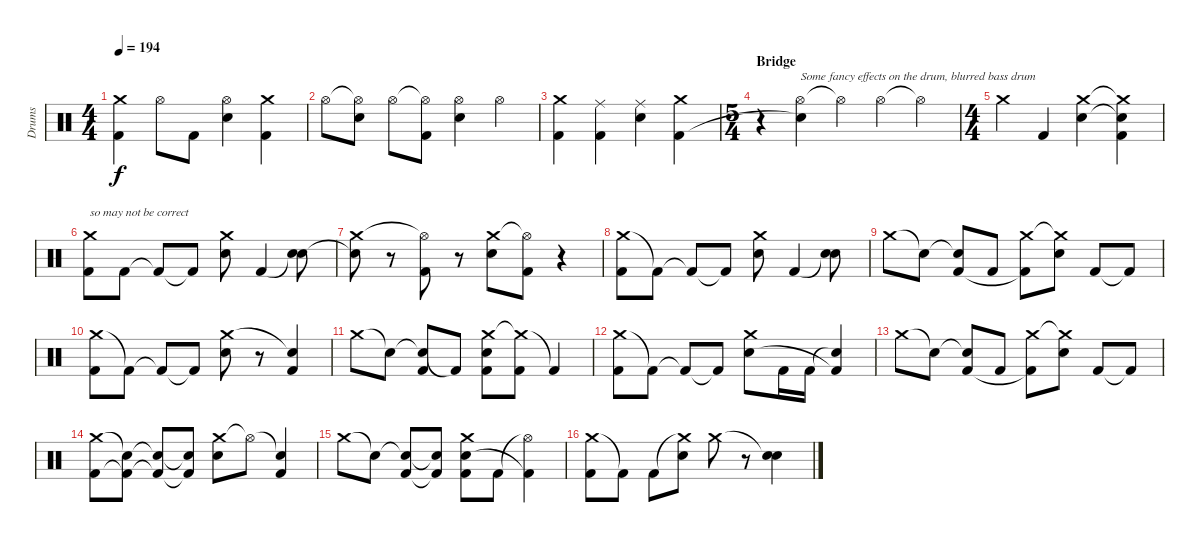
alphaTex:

\track ("Drums" "Drums") {instrument percussion}
\staff {score}
\articulation defaults
\ts (4 4)
\tempo 194
\clef neutral
\ks c
("Crash medium (hit)" "Kick (hit) 2").4{dy f} "Hi-Hat (open)".8 "Kick (hit) 2".8 ("Hi-Hat (open)" "Snare (hit) 2").4 ("Crash medium (hit)" "Kick (hit) 2").4 |
"Hi-Hat (open)".8 ("Hi-Hat (open)"{t} "Snare (hit) 2").8 "Hi-Hat (open)".8 ("Hi-Hat (open)"{t} "Kick (hit) 2").8 ("Hi-Hat (open)" "Snare (hit) 2").4 "Hi-Hat (open)".4 |
("Crash medium (hit)" "Kick (hit) 2").4 ("Ride (middle)" "Kick (hit) 2").4 ("Ride (middle)" "Snare (hit) 2").4 ("Crash medium (hit)" "Kick (hit) 2").4 |
\ts (5 4)
\section ("" "Bridge")
r.4 ("Hi-Hat (open)" "Snare (hit)"{t}).4{txt "Some fancy effects on the drum, blurred bass drum"} "Hi-Hat (open)"{t}.4 "Hi-Hat (open)".4 "Hi-Hat (open)"{t}.4 |
\ts (4 4)
"Crash medium (hit)".4 "Kick (hit) 2".4 ("Crash medium (hit)" "Electric Snare (hit)").4 ("Crash medium (hit)"{t} "Electric Snare (hit)"{t} "Kick (hit) 2").4 |
("Crash medium (hit)" "Kick (hit) 2").8{txt "so may not be correct"} "Kick (hit) 2".8 "Kick (hit) 2"{t}.8 "Kick (hit) 2"{t}.8 ("Crash medium (hit)" "Electric Snare (hit)").8 "Kick (hit) 2".4 ("Snare (hit)"{t} "Electric Snare (hit)").8 |
("Crash medium (hit)" "Snare (hit) 2"{t}).8 r.8 ("Hi-Hat (open)"{t} "Kick (hit) 2").8 r.8 ("Crash medium (hit)" "Electric Snare (hit)").8 ("Hi-Hat (open)"{t} "Kick (hit) 2").8 r.4 |
("Crash medium (hit)" "Kick (hit) 2").8 "Kick (hit) 2"{t}.8 "Kick (hit) 2"{t}.8 "Kick (hit) 2"{t}.8 ("Crash medium (hit)" "Electric Snare (hit)").8 "Kick (hit) 2".4 ("Snare (hit)"{t} "Electric Snare (hit)").8 |
"Crash medium (hit)".8 "Snare (hit)"{t}.8 ("Snare (hit)"{t} "Kick (hit) 2").8 "Kick (hit) 2".8 ("Crash medium (hit)" "Kick (hit) 2"{t}).8 ("Crash medium (hit)"{t} "Electric Snare (hit)").8 "Kick (hit) 2".8 "Kick (hit) 2"{t}.8 |
("Crash medium (hit)" "Kick (hit) 2").8 "Kick (hit) 2"{t}.8 "Kick (hit) 2"{t}.8 "Kick (hit) 2"{t}.8 ("Crash medium (hit)" "Electric Snare (hit)").8 r.8 ("Snare (hit)"{t} "Kick (hit) 2").4 |
"Crash medium (hit)".8 "Snare (hit)"{t}.8 ("Snare (hit)"{t} "Kick (hit) 2").8 "Kick (hit) 2"{t}.8 ("Crash medium (hit)" "Electric Snare (hit)" "Kick (hit) 2").8 ("Crash medium (hit)"{t} "Kick (hit) 2").8 "Kick (hit) 2"{t}.4 |
("Crash medium (hit)" "Kick (hit) 2").8 "Kick (hit) 2"{t}.8 "Kick (hit) 2"{t}.8 "Kick (hit) 2"{t}.8 ("Crash medium (hit)" "Electric Snare (hit)").8 "Kick (hit) 2".16 "Kick (hit) 2".16 ("Snare (hit)"{t} "Kick (hit) 2"{t}).4 |
"Crash medium (hit)".8 "Snare (hit)"{t}.8 ("Snare (hit)"{t} "Kick (hit) 2").8 "Kick (hit) 2".8 ("Crash medium (hit)" "Kick (hit) 2"{t}).8 ("Crash medium (hit)"{t} "Electric Snare (hit)").8 "Kick (hit) 2".8 "Kick (hit) 2"{t}.8 |
("Crash medium (hit)" "Kick (hit) 2").8 ("Snare (hit)"{t} "Kick (hit) 2"{t}).8 ("Snare (hit)"{t} "Kick (hit) 2"{t}).8 ("Snare (hit)"{t} "Kick (hit) 2"{t}).8 ("Crash medium (hit)" "Electric Snare (hit)").8 "Hi-Hat (open)"{t}.8 ("Snare (hit)"{t} "Kick (hit) 2").4 |
"Crash medium (hit)".8 "Snare (hit)"{t}.8 ("Snare (hit)"{t} "Kick (hit) 2").8 ("Snare (hit)"{t} "Kick (hit) 2"{t}).8 ("Crash medium (hit)" "Electric Snare (hit)" "Kick (hit) 2").8 "Kick (hit) 2".8 ("Hi-Hat (open)"{t} "Kick (hit) 2"{t}).4 |
("Crash medium (hit)" "Kick (hit) 2").8 "Kick (hit) 2"{t}.8 "Kick (hit) 2".8 ("Crash medium (hit)"{t} "Electric Snare (hit)").8 "Crash medium (hit)".8 r.8 ("Snare (hit)"{t} "Electric Snare (hit)").4
